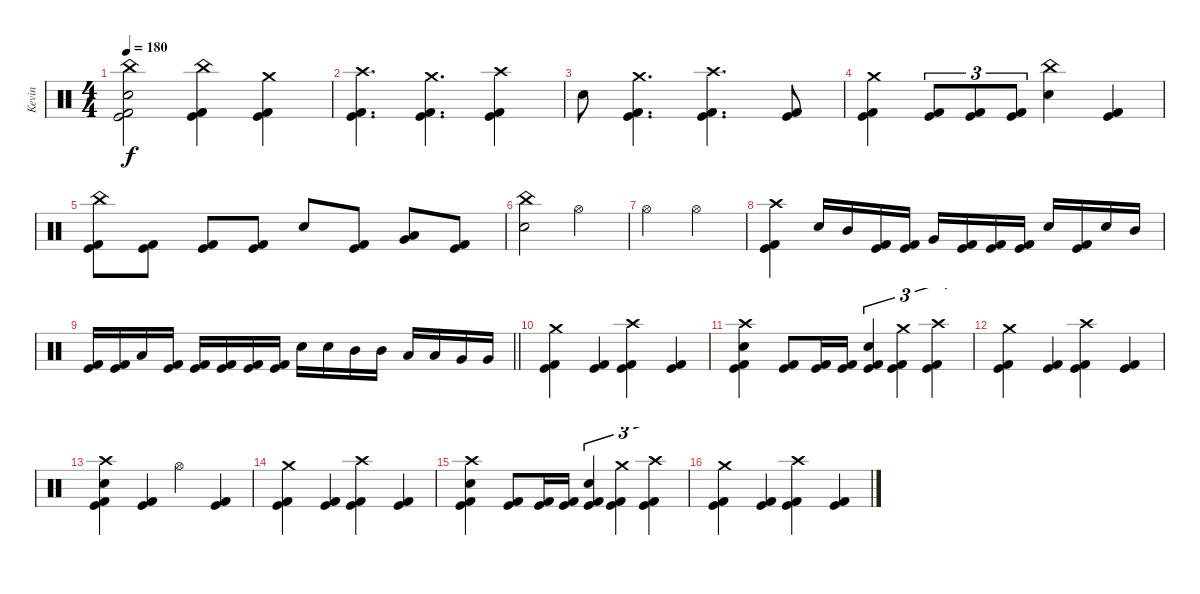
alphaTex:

\track ("Kevin" "Kevin") {instrument percussion}
\staff {score}
\articulation defaults
\ts (4 4)
\tempo 180
\clef neutral
\ks c
("China (hit)" "Electric Snare (hit)" "Kick (hit)" "Kick (hit) 2").2{dy f} ("China (hit)" "Kick (hit)" "Kick (hit) 2").4 ("Crash medium (hit)" "Kick (hit)" "Kick (hit) 2").4 |
("Crash high (hit)" "Kick (hit)" "Kick (hit) 2").4{d} ("Crash medium (hit)" "Kick (hit)" "Kick (hit) 2").4{d} ("Crash high (hit)" "Kick (hit)" "Kick (hit) 2").4 |
"Electric Snare (hit)".8 ("Crash medium (hit)" "Kick (hit)" "Kick (hit) 2").4{d} ("Crash high (hit)" "Kick (hit)" "Kick (hit) 2").4{d} ("Kick (hit)" "Kick (hit) 2").8 |
("Crash medium (hit)" "Kick (hit)" "Kick (hit) 2").4 ("Kick (hit)" "Kick (hit) 2").8{tu (3 2)} ("Kick (hit)" "Kick (hit) 2").8{tu (3 2)} ("Kick (hit)" "Kick (hit) 2").8{tu (3 2)} ("China (hit)" "Electric Snare (hit)").4 ("Kick (hit)" "Kick (hit) 2").4 |
("China (hit)" "Kick (hit)" "Kick (hit) 2").8 ("Kick (hit)" "Kick (hit) 2").8 ("Kick (hit)" "Kick (hit) 2").8 ("Kick (hit)" "Kick (hit) 2").8 "Electric Snare (hit)".8 ("Kick (hit)" "Kick (hit) 2").8 ("Very Low Tom (hit)" "Low Tom (hit)").8 ("Kick (hit)" "Kick (hit) 2").8 |
("China (hit)" "Electric Snare (hit)").2 "Hi-Hat (open)".2 |
"Hi-Hat (open)".2 "Hi-Hat (open)".2 |
("Crash high (hit)" "Kick (hit)" "Kick (hit) 2").4 "Electric Snare (hit)".16 "Mid Tom (hit)".16 ("Kick (hit)" "Kick (hit) 2").16 ("Kick (hit)" "Kick (hit) 2").16 "Very Low Tom (hit)".16 ("Kick (hit)" "Kick (hit) 2").16 ("Kick (hit)" "Kick (hit) 2").16 ("Kick (hit)" "Kick (hit) 2").16 "Electric Snare (hit)".16 ("Kick (hit)" "Kick (hit) 2").16 "Electric Snare (hit)".16 "Mid Tom (hit)".16 |
\barLineRight lightlight
("Kick (hit)" "Kick (hit) 2").16 ("Kick (hit)" "Kick (hit) 2").16 "Low Tom (hit)".16 ("Kick (hit)" "Kick (hit) 2").16 ("Kick (hit)" "Kick (hit) 2").16 ("Kick (hit)" "Kick (hit) 2").16 ("Kick (hit)" "Kick (hit) 2").16 ("Kick (hit)" "Kick (hit) 2").16 "Electric Snare (hit)".16 "Electric Snare (hit)".16 "Mid Tom (hit)".16 "Mid Tom (hit)".16 "Low Tom (hit)".16 "Low Tom (hit)".16 "Very Low Tom (hit)".16 "Very Low Tom (hit)".16 |
\section ("" "")
("Crash medium (hit)" "Kick (hit)" "Kick (hit) 2").4 ("Kick (hit)" "Kick (hit) 2").4 ("Crash high (hit)" "Kick (hit)" "Kick (hit) 2").4 ("Kick (hit)" "Kick (hit) 2").4 |
("Crash high (hit)" "Electric Snare (hit)" "Kick (hit)" "Kick (hit) 2").4 ("Kick (hit)" "Kick (hit) 2").8 ("Kick (hit)" "Kick (hit) 2").16 ("Kick (hit)" "Kick (hit) 2").16 ("Electric Snare (hit)" "Kick (hit)" "Kick (hit) 2").4{tu (3 2)} ("Crash medium (hit)" "Kick (hit)" "Kick (hit) 2").4{tu (3 2)} ("Crash high (hit)" "Kick (hit)" "Kick (hit) 2").4{tu (3 2)} |
("Crash medium (hit)" "Kick (hit)" "Kick (hit) 2").4 ("Kick (hit)" "Kick (hit) 2").4 ("Crash high (hit)" "Kick (hit)" "Kick (hit) 2").4 ("Kick (hit)" "Kick (hit) 2").4 |
("Crash high (hit)" "Electric Snare (hit)" "Kick (hit)" "Kick (hit) 2").4 ("Kick (hit)" "Kick (hit) 2").4 "Hi-Hat (open)".4 ("Kick (hit)" "Kick (hit) 2").4 |
("Crash medium (hit)" "Kick (hit)" "Kick (hit) 2").4 ("Kick (hit)" "Kick (hit) 2").4 ("Crash high (hit)" "Kick (hit)" "Kick (hit) 2").4 ("Kick (hit)" "Kick (hit) 2").4 |
("Crash high (hit)" "Electric Snare (hit)" "Kick (hit)" "Kick (hit) 2").4 ("Kick (hit)" "Kick (hit) 2").8 ("Kick (hit)" "Kick (hit) 2").16 ("Kick (hit)" "Kick (hit) 2").16 ("Electric Snare (hit)" "Kick (hit)" "Kick (hit) 2").4{tu (3 2)} ("Crash medium (hit)" "Kick (hit)" "Kick (hit) 2").4{tu (3 2)} ("Crash high (hit)" "Kick (hit)" "Kick (hit) 2").4{tu (3 2)} |
("Crash medium (hit)" "Kick (hit)" "Kick (hit) 2").4 ("Kick (hit)" "Kick (hit) 2").4 ("Crash high (hit)" "Kick (hit)" "Kick (hit) 2").4 ("Kick (hit)" "Kick (hit) 2").4
